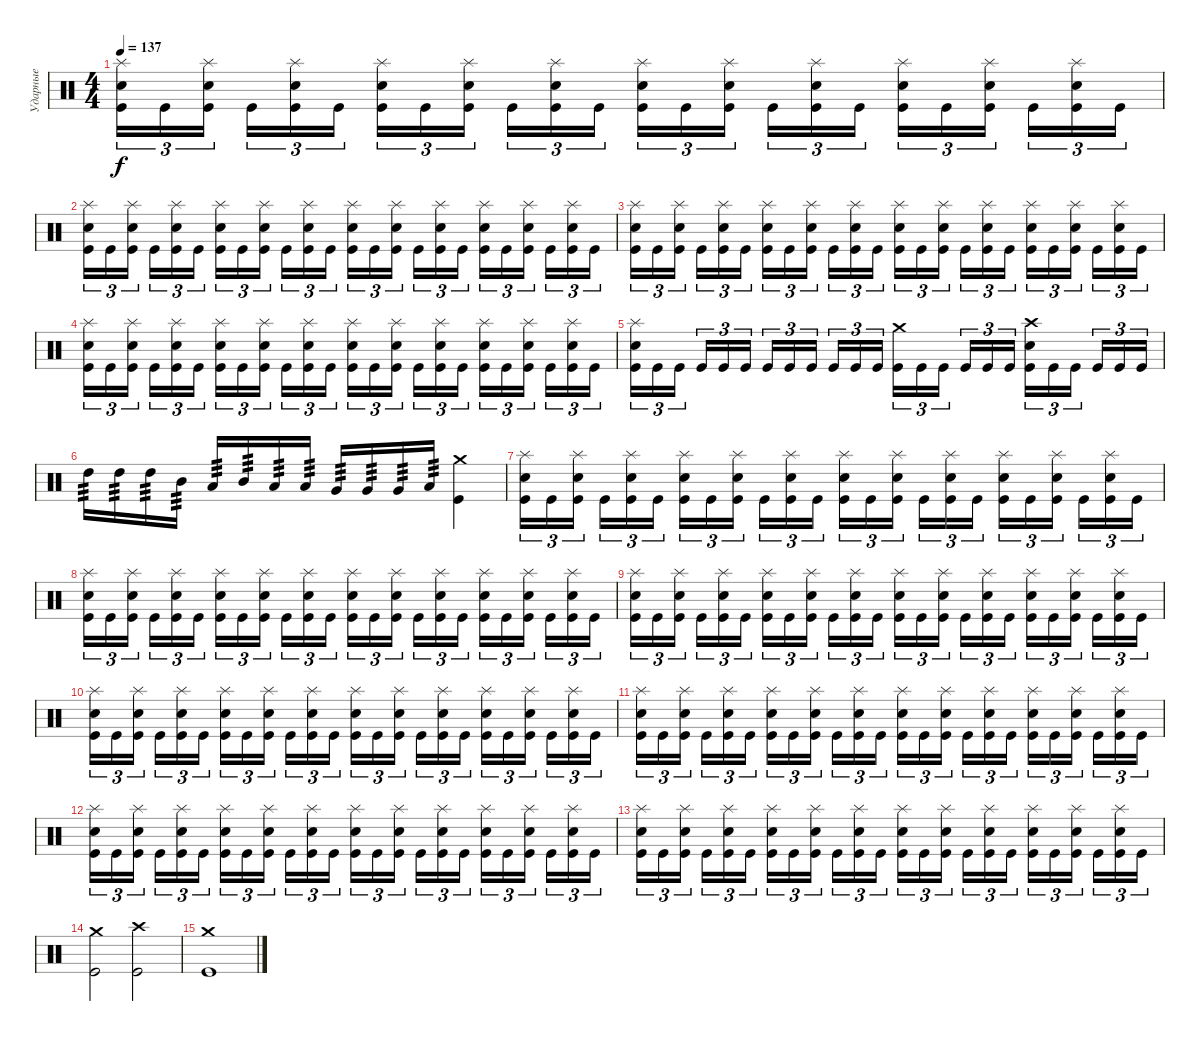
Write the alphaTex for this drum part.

\track ("Ударные" "Ударные") {instrument percussion}
\staff {score}
\articulation defaults
\ts (4 4)
\tempo 137
\clef neutral
\ks c
("Splash (hit)" "Electric Snare (hit)" "Kick (hit)").16{tu (3 2) dy f} "Kick (hit)".16{tu (3 2)} ("Splash (hit)" "Electric Snare (hit)" "Kick (hit)").16{tu (3 2) beam splitsecondary} "Kick (hit)".16{tu (3 2)} ("Splash (hit)" "Electric Snare (hit)" "Kick (hit)").16{tu (3 2)} "Kick (hit)".16{tu (3 2)} ("Splash (hit)" "Electric Snare (hit)" "Kick (hit)").16{tu (3 2)} "Kick (hit)".16{tu (3 2)} ("Splash (hit)" "Electric Snare (hit)" "Kick (hit)").16{tu (3 2) beam splitsecondary} "Kick (hit)".16{tu (3 2)} ("Splash (hit)" "Electric Snare (hit)" "Kick (hit)").16{tu (3 2)} "Kick (hit)".16{tu (3 2)} ("Splash (hit)" "Electric Snare (hit)" "Kick (hit)").16{tu (3 2)} "Kick (hit)".16{tu (3 2)} ("Splash (hit)" "Electric Snare (hit)" "Kick (hit)").16{tu (3 2) beam splitsecondary} "Kick (hit)".16{tu (3 2)} ("Splash (hit)" "Electric Snare (hit)" "Kick (hit)").16{tu (3 2)} "Kick (hit)".16{tu (3 2)} ("Splash (hit)" "Electric Snare (hit)" "Kick (hit)").16{tu (3 2)} "Kick (hit)".16{tu (3 2)} ("Splash (hit)" "Electric Snare (hit)" "Kick (hit)").16{tu (3 2) beam splitsecondary} "Kick (hit)".16{tu (3 2)} ("Splash (hit)" "Electric Snare (hit)" "Kick (hit)").16{tu (3 2)} "Kick (hit)".16{tu (3 2)} |
("Splash (hit)" "Electric Snare (hit)" "Kick (hit)").16{tu (3 2)} "Kick (hit)".16{tu (3 2)} ("Splash (hit)" "Electric Snare (hit)" "Kick (hit)").16{tu (3 2) beam splitsecondary} "Kick (hit)".16{tu (3 2)} ("Splash (hit)" "Electric Snare (hit)" "Kick (hit)").16{tu (3 2)} "Kick (hit)".16{tu (3 2)} ("Splash (hit)" "Electric Snare (hit)" "Kick (hit)").16{tu (3 2)} "Kick (hit)".16{tu (3 2)} ("Splash (hit)" "Electric Snare (hit)" "Kick (hit)").16{tu (3 2) beam splitsecondary} "Kick (hit)".16{tu (3 2)} ("Splash (hit)" "Electric Snare (hit)" "Kick (hit)").16{tu (3 2)} "Kick (hit)".16{tu (3 2)} ("Splash (hit)" "Electric Snare (hit)" "Kick (hit)").16{tu (3 2)} "Kick (hit)".16{tu (3 2)} ("Splash (hit)" "Electric Snare (hit)" "Kick (hit)").16{tu (3 2) beam splitsecondary} "Kick (hit)".16{tu (3 2)} ("Splash (hit)" "Electric Snare (hit)" "Kick (hit)").16{tu (3 2)} "Kick (hit)".16{tu (3 2)} ("Splash (hit)" "Electric Snare (hit)" "Kick (hit)").16{tu (3 2)} "Kick (hit)".16{tu (3 2)} ("Splash (hit)" "Electric Snare (hit)" "Kick (hit)").16{tu (3 2) beam splitsecondary} "Kick (hit)".16{tu (3 2)} ("Splash (hit)" "Electric Snare (hit)" "Kick (hit)").16{tu (3 2)} "Kick (hit)".16{tu (3 2)} |
("Splash (hit)" "Electric Snare (hit)" "Kick (hit)").16{tu (3 2)} "Kick (hit)".16{tu (3 2)} ("Splash (hit)" "Electric Snare (hit)" "Kick (hit)").16{tu (3 2) beam splitsecondary} "Kick (hit)".16{tu (3 2)} ("Splash (hit)" "Electric Snare (hit)" "Kick (hit)").16{tu (3 2)} "Kick (hit)".16{tu (3 2)} ("Splash (hit)" "Electric Snare (hit)" "Kick (hit)").16{tu (3 2)} "Kick (hit)".16{tu (3 2)} ("Splash (hit)" "Electric Snare (hit)" "Kick (hit)").16{tu (3 2) beam splitsecondary} "Kick (hit)".16{tu (3 2)} ("Splash (hit)" "Electric Snare (hit)" "Kick (hit)").16{tu (3 2)} "Kick (hit)".16{tu (3 2)} ("Splash (hit)" "Electric Snare (hit)" "Kick (hit)").16{tu (3 2)} "Kick (hit)".16{tu (3 2)} ("Splash (hit)" "Electric Snare (hit)" "Kick (hit)").16{tu (3 2) beam splitsecondary} "Kick (hit)".16{tu (3 2)} ("Splash (hit)" "Electric Snare (hit)" "Kick (hit)").16{tu (3 2)} "Kick (hit)".16{tu (3 2)} ("Splash (hit)" "Electric Snare (hit)" "Kick (hit)").16{tu (3 2)} "Kick (hit)".16{tu (3 2)} ("Splash (hit)" "Electric Snare (hit)" "Kick (hit)").16{tu (3 2) beam splitsecondary} "Kick (hit)".16{tu (3 2)} ("Splash (hit)" "Electric Snare (hit)" "Kick (hit)").16{tu (3 2)} "Kick (hit)".16{tu (3 2)} |
("Splash (hit)" "Electric Snare (hit)" "Kick (hit)").16{tu (3 2)} "Kick (hit)".16{tu (3 2)} ("Splash (hit)" "Electric Snare (hit)" "Kick (hit)").16{tu (3 2) beam splitsecondary} "Kick (hit)".16{tu (3 2)} ("Splash (hit)" "Electric Snare (hit)" "Kick (hit)").16{tu (3 2)} "Kick (hit)".16{tu (3 2)} ("Splash (hit)" "Electric Snare (hit)" "Kick (hit)").16{tu (3 2)} "Kick (hit)".16{tu (3 2)} ("Splash (hit)" "Electric Snare (hit)" "Kick (hit)").16{tu (3 2) beam splitsecondary} "Kick (hit)".16{tu (3 2)} ("Splash (hit)" "Electric Snare (hit)" "Kick (hit)").16{tu (3 2)} "Kick (hit)".16{tu (3 2)} ("Splash (hit)" "Electric Snare (hit)" "Kick (hit)").16{tu (3 2)} "Kick (hit)".16{tu (3 2)} ("Splash (hit)" "Electric Snare (hit)" "Kick (hit)").16{tu (3 2) beam splitsecondary} "Kick (hit)".16{tu (3 2)} ("Splash (hit)" "Electric Snare (hit)" "Kick (hit)").16{tu (3 2)} "Kick (hit)".16{tu (3 2)} ("Splash (hit)" "Electric Snare (hit)" "Kick (hit)").16{tu (3 2)} "Kick (hit)".16{tu (3 2)} ("Splash (hit)" "Electric Snare (hit)" "Kick (hit)").16{tu (3 2) beam splitsecondary} "Kick (hit)".16{tu (3 2)} ("Splash (hit)" "Electric Snare (hit)" "Kick (hit)").16{tu (3 2)} "Kick (hit)".16{tu (3 2)} |
("Splash (hit)" "Electric Snare (hit)" "Kick (hit)").16{tu (3 2)} "Kick (hit)".16{tu (3 2)} "Kick (hit)".16{tu (3 2) beam splitsecondary} "Kick (hit)".16{tu (3 2)} "Kick (hit)".16{tu (3 2)} "Kick (hit)".16{tu (3 2)} "Kick (hit)".16{tu (3 2)} "Kick (hit)".16{tu (3 2)} "Kick (hit)".16{tu (3 2) beam splitsecondary} "Kick (hit)".16{tu (3 2)} "Kick (hit)".16{tu (3 2)} "Kick (hit)".16{tu (3 2)} ("Crash medium (hit)" "Kick (hit)").16{tu (3 2)} "Kick (hit)".16{tu (3 2)} "Kick (hit)".16{tu (3 2) beam splitsecondary} "Kick (hit)".16{tu (3 2)} "Kick (hit)".16{tu (3 2)} "Kick (hit)".16{tu (3 2)} ("Crash high (hit)" "Electric Snare (hit)" "Kick (hit)").16{tu (3 2)} "Kick (hit)".16{tu (3 2)} "Kick (hit)".16{tu (3 2) beam splitsecondary} "Kick (hit)".16{tu (3 2)} "Kick (hit)".16{tu (3 2)} "Kick (hit)".16{tu (3 2)} |
"High Tom (hit)".16{tp 3} "High Tom (hit)".16{tp 3} "High Tom (hit)".16{tp 3} "Mid Tom (hit)".16{tp 3} "Low Tom (hit)".16{tp 3} "Mid Tom (hit)".16{tp 3} "Low Tom (hit)".16{tp 3} "Low Tom (hit)".16{tp 3} "Very Low Tom (hit)".16{tp 3} "Very Low Tom (hit)".16{tp 3} "Very Low Tom (hit)".16{tp 3} "Low Floor Tom (hit)".16{tp 3} ("Crash medium (hit)" "Kick (hit)").4 |
("Splash (hit)" "Electric Snare (hit)" "Kick (hit)").16{tu (3 2)} "Kick (hit)".16{tu (3 2)} ("Splash (hit)" "Electric Snare (hit)" "Kick (hit)").16{tu (3 2) beam splitsecondary} "Kick (hit)".16{tu (3 2)} ("Splash (hit)" "Electric Snare (hit)" "Kick (hit)").16{tu (3 2)} "Kick (hit)".16{tu (3 2)} ("Splash (hit)" "Electric Snare (hit)" "Kick (hit)").16{tu (3 2)} "Kick (hit)".16{tu (3 2)} ("Splash (hit)" "Electric Snare (hit)" "Kick (hit)").16{tu (3 2) beam splitsecondary} "Kick (hit)".16{tu (3 2)} ("Splash (hit)" "Electric Snare (hit)" "Kick (hit)").16{tu (3 2)} "Kick (hit)".16{tu (3 2)} ("Splash (hit)" "Electric Snare (hit)" "Kick (hit)").16{tu (3 2)} "Kick (hit)".16{tu (3 2)} ("Splash (hit)" "Electric Snare (hit)" "Kick (hit)").16{tu (3 2) beam splitsecondary} "Kick (hit)".16{tu (3 2)} ("Splash (hit)" "Electric Snare (hit)" "Kick (hit)").16{tu (3 2)} "Kick (hit)".16{tu (3 2)} ("Splash (hit)" "Electric Snare (hit)" "Kick (hit)").16{tu (3 2)} "Kick (hit)".16{tu (3 2)} ("Splash (hit)" "Electric Snare (hit)" "Kick (hit)").16{tu (3 2) beam splitsecondary} "Kick (hit)".16{tu (3 2)} ("Splash (hit)" "Electric Snare (hit)" "Kick (hit)").16{tu (3 2)} "Kick (hit)".16{tu (3 2)} |
("Splash (hit)" "Electric Snare (hit)" "Kick (hit)").16{tu (3 2)} "Kick (hit)".16{tu (3 2)} ("Splash (hit)" "Electric Snare (hit)" "Kick (hit)").16{tu (3 2) beam splitsecondary} "Kick (hit)".16{tu (3 2)} ("Splash (hit)" "Electric Snare (hit)" "Kick (hit)").16{tu (3 2)} "Kick (hit)".16{tu (3 2)} ("Splash (hit)" "Electric Snare (hit)" "Kick (hit)").16{tu (3 2)} "Kick (hit)".16{tu (3 2)} ("Splash (hit)" "Electric Snare (hit)" "Kick (hit)").16{tu (3 2) beam splitsecondary} "Kick (hit)".16{tu (3 2)} ("Splash (hit)" "Electric Snare (hit)" "Kick (hit)").16{tu (3 2)} "Kick (hit)".16{tu (3 2)} ("Splash (hit)" "Electric Snare (hit)" "Kick (hit)").16{tu (3 2)} "Kick (hit)".16{tu (3 2)} ("Splash (hit)" "Electric Snare (hit)" "Kick (hit)").16{tu (3 2) beam splitsecondary} "Kick (hit)".16{tu (3 2)} ("Splash (hit)" "Electric Snare (hit)" "Kick (hit)").16{tu (3 2)} "Kick (hit)".16{tu (3 2)} ("Splash (hit)" "Electric Snare (hit)" "Kick (hit)").16{tu (3 2)} "Kick (hit)".16{tu (3 2)} ("Splash (hit)" "Electric Snare (hit)" "Kick (hit)").16{tu (3 2) beam splitsecondary} "Kick (hit)".16{tu (3 2)} ("Splash (hit)" "Electric Snare (hit)" "Kick (hit)").16{tu (3 2)} "Kick (hit)".16{tu (3 2)} |
("Splash (hit)" "Electric Snare (hit)" "Kick (hit)").16{tu (3 2)} "Kick (hit)".16{tu (3 2)} ("Splash (hit)" "Electric Snare (hit)" "Kick (hit)").16{tu (3 2) beam splitsecondary} "Kick (hit)".16{tu (3 2)} ("Splash (hit)" "Electric Snare (hit)" "Kick (hit)").16{tu (3 2)} "Kick (hit)".16{tu (3 2)} ("Splash (hit)" "Electric Snare (hit)" "Kick (hit)").16{tu (3 2)} "Kick (hit)".16{tu (3 2)} ("Splash (hit)" "Electric Snare (hit)" "Kick (hit)").16{tu (3 2) beam splitsecondary} "Kick (hit)".16{tu (3 2)} ("Splash (hit)" "Electric Snare (hit)" "Kick (hit)").16{tu (3 2)} "Kick (hit)".16{tu (3 2)} ("Splash (hit)" "Electric Snare (hit)" "Kick (hit)").16{tu (3 2)} "Kick (hit)".16{tu (3 2)} ("Splash (hit)" "Electric Snare (hit)" "Kick (hit)").16{tu (3 2) beam splitsecondary} "Kick (hit)".16{tu (3 2)} ("Splash (hit)" "Electric Snare (hit)" "Kick (hit)").16{tu (3 2)} "Kick (hit)".16{tu (3 2)} ("Splash (hit)" "Electric Snare (hit)" "Kick (hit)").16{tu (3 2)} "Kick (hit)".16{tu (3 2)} ("Splash (hit)" "Electric Snare (hit)" "Kick (hit)").16{tu (3 2) beam splitsecondary} "Kick (hit)".16{tu (3 2)} ("Splash (hit)" "Electric Snare (hit)" "Kick (hit)").16{tu (3 2)} "Kick (hit)".16{tu (3 2)} |
("Splash (hit)" "Electric Snare (hit)" "Kick (hit)").16{tu (3 2)} "Kick (hit)".16{tu (3 2)} ("Splash (hit)" "Electric Snare (hit)" "Kick (hit)").16{tu (3 2) beam splitsecondary} "Kick (hit)".16{tu (3 2)} ("Splash (hit)" "Electric Snare (hit)" "Kick (hit)").16{tu (3 2)} "Kick (hit)".16{tu (3 2)} ("Splash (hit)" "Electric Snare (hit)" "Kick (hit)").16{tu (3 2)} "Kick (hit)".16{tu (3 2)} ("Splash (hit)" "Electric Snare (hit)" "Kick (hit)").16{tu (3 2) beam splitsecondary} "Kick (hit)".16{tu (3 2)} ("Splash (hit)" "Electric Snare (hit)" "Kick (hit)").16{tu (3 2)} "Kick (hit)".16{tu (3 2)} ("Splash (hit)" "Electric Snare (hit)" "Kick (hit)").16{tu (3 2)} "Kick (hit)".16{tu (3 2)} ("Splash (hit)" "Electric Snare (hit)" "Kick (hit)").16{tu (3 2) beam splitsecondary} "Kick (hit)".16{tu (3 2)} ("Splash (hit)" "Electric Snare (hit)" "Kick (hit)").16{tu (3 2)} "Kick (hit)".16{tu (3 2)} ("Splash (hit)" "Electric Snare (hit)" "Kick (hit)").16{tu (3 2)} "Kick (hit)".16{tu (3 2)} ("Splash (hit)" "Electric Snare (hit)" "Kick (hit)").16{tu (3 2) beam splitsecondary} "Kick (hit)".16{tu (3 2)} ("Splash (hit)" "Electric Snare (hit)" "Kick (hit)").16{tu (3 2)} "Kick (hit)".16{tu (3 2)} |
("Splash (hit)" "Electric Snare (hit)" "Kick (hit)").16{tu (3 2)} "Kick (hit)".16{tu (3 2)} ("Splash (hit)" "Electric Snare (hit)" "Kick (hit)").16{tu (3 2) beam splitsecondary} "Kick (hit)".16{tu (3 2)} ("Splash (hit)" "Electric Snare (hit)" "Kick (hit)").16{tu (3 2)} "Kick (hit)".16{tu (3 2)} ("Splash (hit)" "Electric Snare (hit)" "Kick (hit)").16{tu (3 2)} "Kick (hit)".16{tu (3 2)} ("Splash (hit)" "Electric Snare (hit)" "Kick (hit)").16{tu (3 2) beam splitsecondary} "Kick (hit)".16{tu (3 2)} ("Splash (hit)" "Electric Snare (hit)" "Kick (hit)").16{tu (3 2)} "Kick (hit)".16{tu (3 2)} ("Splash (hit)" "Electric Snare (hit)" "Kick (hit)").16{tu (3 2)} "Kick (hit)".16{tu (3 2)} ("Splash (hit)" "Electric Snare (hit)" "Kick (hit)").16{tu (3 2) beam splitsecondary} "Kick (hit)".16{tu (3 2)} ("Splash (hit)" "Electric Snare (hit)" "Kick (hit)").16{tu (3 2)} "Kick (hit)".16{tu (3 2)} ("Splash (hit)" "Electric Snare (hit)" "Kick (hit)").16{tu (3 2)} "Kick (hit)".16{tu (3 2)} ("Splash (hit)" "Electric Snare (hit)" "Kick (hit)").16{tu (3 2) beam splitsecondary} "Kick (hit)".16{tu (3 2)} ("Splash (hit)" "Electric Snare (hit)" "Kick (hit)").16{tu (3 2)} "Kick (hit)".16{tu (3 2)} |
("Splash (hit)" "Electric Snare (hit)" "Kick (hit)").16{tu (3 2)} "Kick (hit)".16{tu (3 2)} ("Splash (hit)" "Electric Snare (hit)" "Kick (hit)").16{tu (3 2) beam splitsecondary} "Kick (hit)".16{tu (3 2)} ("Splash (hit)" "Electric Snare (hit)" "Kick (hit)").16{tu (3 2)} "Kick (hit)".16{tu (3 2)} ("Splash (hit)" "Electric Snare (hit)" "Kick (hit)").16{tu (3 2)} "Kick (hit)".16{tu (3 2)} ("Splash (hit)" "Electric Snare (hit)" "Kick (hit)").16{tu (3 2) beam splitsecondary} "Kick (hit)".16{tu (3 2)} ("Splash (hit)" "Electric Snare (hit)" "Kick (hit)").16{tu (3 2)} "Kick (hit)".16{tu (3 2)} ("Splash (hit)" "Electric Snare (hit)" "Kick (hit)").16{tu (3 2)} "Kick (hit)".16{tu (3 2)} ("Splash (hit)" "Electric Snare (hit)" "Kick (hit)").16{tu (3 2) beam splitsecondary} "Kick (hit)".16{tu (3 2)} ("Splash (hit)" "Electric Snare (hit)" "Kick (hit)").16{tu (3 2)} "Kick (hit)".16{tu (3 2)} ("Splash (hit)" "Electric Snare (hit)" "Kick (hit)").16{tu (3 2)} "Kick (hit)".16{tu (3 2)} ("Splash (hit)" "Electric Snare (hit)" "Kick (hit)").16{tu (3 2) beam splitsecondary} "Kick (hit)".16{tu (3 2)} ("Splash (hit)" "Electric Snare (hit)" "Kick (hit)").16{tu (3 2)} "Kick (hit)".16{tu (3 2)} |
("Splash (hit)" "Electric Snare (hit)" "Kick (hit)").16{tu (3 2)} "Kick (hit)".16{tu (3 2)} ("Splash (hit)" "Electric Snare (hit)" "Kick (hit)").16{tu (3 2) beam splitsecondary} "Kick (hit)".16{tu (3 2)} ("Splash (hit)" "Electric Snare (hit)" "Kick (hit)").16{tu (3 2)} "Kick (hit)".16{tu (3 2)} ("Splash (hit)" "Electric Snare (hit)" "Kick (hit)").16{tu (3 2)} "Kick (hit)".16{tu (3 2)} ("Splash (hit)" "Electric Snare (hit)" "Kick (hit)").16{tu (3 2) beam splitsecondary} "Kick (hit)".16{tu (3 2)} ("Splash (hit)" "Electric Snare (hit)" "Kick (hit)").16{tu (3 2)} "Kick (hit)".16{tu (3 2)} ("Splash (hit)" "Electric Snare (hit)" "Kick (hit)").16{tu (3 2)} "Kick (hit)".16{tu (3 2)} ("Splash (hit)" "Electric Snare (hit)" "Kick (hit)").16{tu (3 2) beam splitsecondary} "Kick (hit)".16{tu (3 2)} ("Splash (hit)" "Electric Snare (hit)" "Kick (hit)").16{tu (3 2)} "Kick (hit)".16{tu (3 2)} ("Splash (hit)" "Electric Snare (hit)" "Kick (hit)").16{tu (3 2)} "Kick (hit)".16{tu (3 2)} ("Splash (hit)" "Electric Snare (hit)" "Kick (hit)").16{tu (3 2) beam splitsecondary} "Kick (hit)".16{tu (3 2)} ("Splash (hit)" "Electric Snare (hit)" "Kick (hit)").16{tu (3 2)} "Kick (hit)".16{tu (3 2)} |
("Crash medium (hit)" "Kick (hit)").2 ("Crash high (hit)" "Kick (hit)").2 |
("Crash medium (hit)" "Kick (hit)").1
